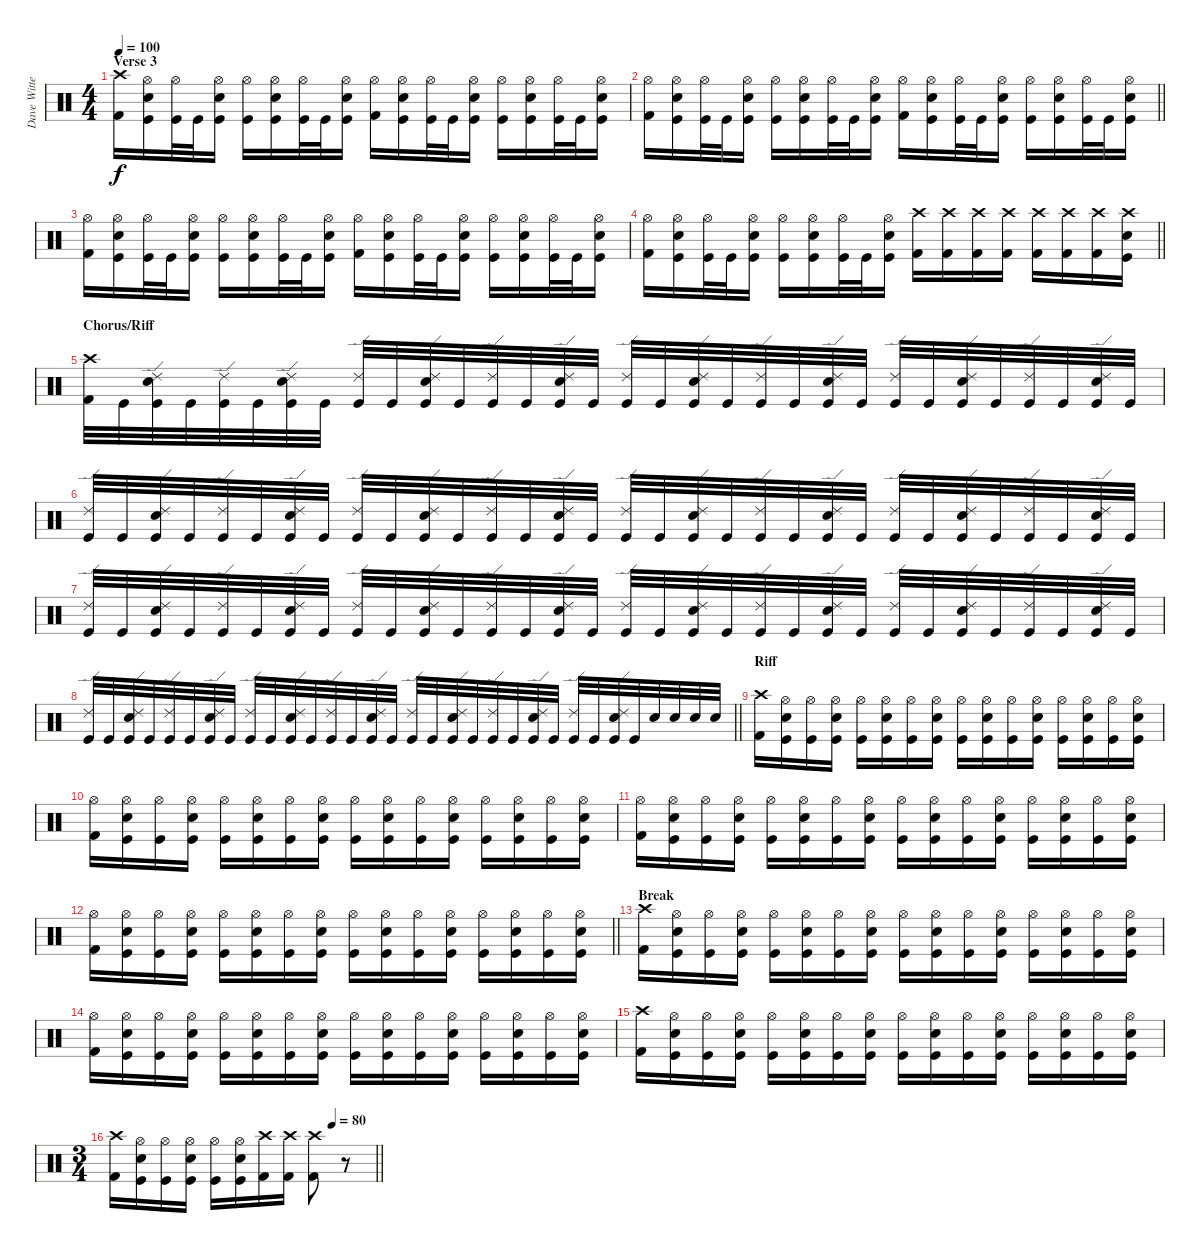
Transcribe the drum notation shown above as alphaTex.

\track ("Dave Witte " "Dave Witte") {instrument percussion}
\staff {score}
\articulation defaults
\ts (4 4)
\section ("" "Verse 3")
\tempo 100
\clef neutral
\ks c
("Kick (hit) 2" "Crash high (hit)").16{dy f} ("Kick (hit)" "Electric Snare (hit)" "Hi-Hat (open)").16 ("Kick (hit)" "Hi-Hat (open)").32 "Kick (hit)".32 ("Kick (hit)" "Electric Snare (hit)" "Hi-Hat (open)").16 ("Kick (hit)" "Hi-Hat (open)").16 ("Kick (hit)" "Electric Snare (hit)" "Hi-Hat (open)").16 ("Kick (hit)" "Hi-Hat (open)").32 "Kick (hit)".32 ("Kick (hit)" "Electric Snare (hit)" "Hi-Hat (open)").16 ("Kick (hit) 2" "Hi-Hat (open)").16 ("Kick (hit)" "Electric Snare (hit)" "Hi-Hat (open)").16 ("Kick (hit)" "Hi-Hat (open)").32 "Kick (hit)".32 ("Kick (hit)" "Electric Snare (hit)" "Hi-Hat (open)").16 ("Kick (hit)" "Hi-Hat (open)").16 ("Kick (hit)" "Electric Snare (hit)" "Hi-Hat (open)").16 ("Kick (hit)" "Hi-Hat (open)").32 "Kick (hit)".32 ("Kick (hit)" "Electric Snare (hit)" "Hi-Hat (open)").16 |
\barLineRight lightlight
("Kick (hit) 2" "Hi-Hat (open)").16 ("Kick (hit)" "Electric Snare (hit)" "Hi-Hat (open)").16 ("Kick (hit)" "Hi-Hat (open)").32 "Kick (hit)".32 ("Kick (hit)" "Electric Snare (hit)" "Hi-Hat (open)").16 ("Kick (hit)" "Hi-Hat (open)").16 ("Kick (hit)" "Electric Snare (hit)" "Hi-Hat (open)").16 ("Kick (hit)" "Hi-Hat (open)").32 "Kick (hit)".32 ("Kick (hit)" "Electric Snare (hit)" "Hi-Hat (open)").16 ("Kick (hit) 2" "Hi-Hat (open)").16 ("Kick (hit)" "Electric Snare (hit)" "Hi-Hat (open)").16 ("Kick (hit)" "Hi-Hat (open)").32 "Kick (hit)".32 ("Kick (hit)" "Electric Snare (hit)" "Hi-Hat (open)").16 ("Kick (hit)" "Hi-Hat (open)").16 ("Kick (hit)" "Electric Snare (hit)" "Hi-Hat (open)").16 ("Kick (hit)" "Hi-Hat (open)").32 "Kick (hit)".32 ("Kick (hit)" "Electric Snare (hit)" "Hi-Hat (open)").16 |
("Kick (hit) 2" "Hi-Hat (open)").16 ("Kick (hit)" "Electric Snare (hit)" "Hi-Hat (open)").16 ("Kick (hit)" "Hi-Hat (open)").32 "Kick (hit)".32 ("Kick (hit)" "Electric Snare (hit)" "Hi-Hat (open)").16 ("Kick (hit)" "Hi-Hat (open)").16 ("Kick (hit)" "Electric Snare (hit)" "Hi-Hat (open)").16 ("Kick (hit)" "Hi-Hat (open)").32 "Kick (hit)".32 ("Kick (hit)" "Electric Snare (hit)" "Hi-Hat (open)").16 ("Kick (hit) 2" "Hi-Hat (open)").16 ("Kick (hit)" "Electric Snare (hit)" "Hi-Hat (open)").16 ("Kick (hit)" "Hi-Hat (open)").32 "Kick (hit)".32 ("Kick (hit)" "Electric Snare (hit)" "Hi-Hat (open)").16 ("Kick (hit)" "Hi-Hat (open)").16 ("Kick (hit)" "Electric Snare (hit)" "Hi-Hat (open)").16 ("Kick (hit)" "Hi-Hat (open)").32 "Kick (hit)".32 ("Kick (hit)" "Electric Snare (hit)" "Hi-Hat (open)").16 |
\barLineRight lightlight
("Kick (hit) 2" "Hi-Hat (open)").16 ("Kick (hit)" "Electric Snare (hit)" "Hi-Hat (open)").16 ("Kick (hit)" "Hi-Hat (open)").32 "Kick (hit)".32 ("Kick (hit)" "Electric Snare (hit)" "Hi-Hat (open)").16 ("Kick (hit)" "Hi-Hat (open)").16 ("Kick (hit)" "Electric Snare (hit)" "Hi-Hat (open)").16 ("Kick (hit)" "Hi-Hat (open)").32 "Kick (hit)".32 ("Kick (hit)" "Electric Snare (hit)" "Hi-Hat (open)").16 ("Kick (hit) 2" "Crash high (hit)").16 ("Kick (hit) 2" "Crash high (hit)").16 ("Kick (hit) 2" "Crash high (hit)").16 ("Kick (hit) 2" "Crash high (hit)").16 ("Kick (hit) 2" "Crash high (hit)").16 ("Kick (hit) 2" "Crash high (hit)").16 ("Kick (hit) 2" "Crash high (hit)").16 ("Kick (hit)" "Electric Snare (hit)" "Crash high (hit)").16 |
\section ("" "Chorus/Riff")
("Kick (hit) 2" "Crash high (hit)").32 "Kick (hit)".32 ("Kick (hit)" "Electric Snare (hit)" "Ride (edge) 2").32 "Kick (hit)".32 ("Kick (hit)" "Ride (edge) 2").32 "Kick (hit)".32 ("Kick (hit)" "Electric Snare (hit)" "Ride (edge) 2").32 "Kick (hit)".32 ("Kick (hit)" "Ride (edge) 2").32 "Kick (hit)".32 ("Kick (hit)" "Electric Snare (hit)" "Ride (edge) 2").32 "Kick (hit)".32 ("Kick (hit)" "Ride (edge) 2").32 "Kick (hit)".32 ("Kick (hit)" "Electric Snare (hit)" "Ride (edge) 2").32 "Kick (hit)".32 ("Kick (hit)" "Ride (edge) 2").32 "Kick (hit)".32 ("Kick (hit)" "Electric Snare (hit)" "Ride (edge) 2").32 "Kick (hit)".32 ("Kick (hit)" "Ride (edge) 2").32 "Kick (hit)".32 ("Kick (hit)" "Electric Snare (hit)" "Ride (edge) 2").32 "Kick (hit)".32 ("Kick (hit)" "Ride (edge) 2").32 "Kick (hit)".32 ("Kick (hit)" "Electric Snare (hit)" "Ride (edge) 2").32 "Kick (hit)".32 ("Kick (hit)" "Ride (edge) 2").32 "Kick (hit)".32 ("Kick (hit)" "Electric Snare (hit)" "Ride (edge) 2").32 "Kick (hit)".32 |
("Kick (hit)" "Ride (edge) 2").32 "Kick (hit)".32 ("Kick (hit)" "Electric Snare (hit)" "Ride (edge) 2").32 "Kick (hit)".32 ("Kick (hit)" "Ride (edge) 2").32 "Kick (hit)".32 ("Kick (hit)" "Electric Snare (hit)" "Ride (edge) 2").32 "Kick (hit)".32 ("Kick (hit)" "Ride (edge) 2").32 "Kick (hit)".32 ("Kick (hit)" "Electric Snare (hit)" "Ride (edge) 2").32 "Kick (hit)".32 ("Kick (hit)" "Ride (edge) 2").32 "Kick (hit)".32 ("Kick (hit)" "Electric Snare (hit)" "Ride (edge) 2").32 "Kick (hit)".32 ("Kick (hit)" "Ride (edge) 2").32 "Kick (hit)".32 ("Kick (hit)" "Electric Snare (hit)" "Ride (edge) 2").32 "Kick (hit)".32 ("Kick (hit)" "Ride (edge) 2").32 "Kick (hit)".32 ("Kick (hit)" "Electric Snare (hit)" "Ride (edge) 2").32 "Kick (hit)".32 ("Kick (hit)" "Ride (edge) 2").32 "Kick (hit)".32 ("Kick (hit)" "Electric Snare (hit)" "Ride (edge) 2").32 "Kick (hit)".32 ("Kick (hit)" "Ride (edge) 2").32 "Kick (hit)".32 ("Kick (hit)" "Electric Snare (hit)" "Ride (edge) 2").32 "Kick (hit)".32 |
("Kick (hit)" "Ride (edge) 2").32 "Kick (hit)".32 ("Kick (hit)" "Electric Snare (hit)" "Ride (edge) 2").32 "Kick (hit)".32 ("Kick (hit)" "Ride (edge) 2").32 "Kick (hit)".32 ("Kick (hit)" "Electric Snare (hit)" "Ride (edge) 2").32 "Kick (hit)".32 ("Kick (hit)" "Ride (edge) 2").32 "Kick (hit)".32 ("Kick (hit)" "Electric Snare (hit)" "Ride (edge) 2").32 "Kick (hit)".32 ("Kick (hit)" "Ride (edge) 2").32 "Kick (hit)".32 ("Kick (hit)" "Electric Snare (hit)" "Ride (edge) 2").32 "Kick (hit)".32 ("Kick (hit)" "Ride (edge) 2").32 "Kick (hit)".32 ("Kick (hit)" "Electric Snare (hit)" "Ride (edge) 2").32 "Kick (hit)".32 ("Kick (hit)" "Ride (edge) 2").32 "Kick (hit)".32 ("Kick (hit)" "Electric Snare (hit)" "Ride (edge) 2").32 "Kick (hit)".32 ("Kick (hit)" "Ride (edge) 2").32 "Kick (hit)".32 ("Kick (hit)" "Electric Snare (hit)" "Ride (edge) 2").32 "Kick (hit)".32 ("Kick (hit)" "Ride (edge) 2").32 "Kick (hit)".32 ("Kick (hit)" "Electric Snare (hit)" "Ride (edge) 2").32 "Kick (hit)".32 |
\barLineRight lightlight
("Kick (hit)" "Ride (edge) 2").32 "Kick (hit)".32 ("Kick (hit)" "Electric Snare (hit)" "Ride (edge) 2").32 "Kick (hit)".32 ("Kick (hit)" "Ride (edge) 2").32 "Kick (hit)".32 ("Kick (hit)" "Electric Snare (hit)" "Ride (edge) 2").32 "Kick (hit)".32 ("Kick (hit)" "Ride (edge) 2").32 "Kick (hit)".32 ("Kick (hit)" "Electric Snare (hit)" "Ride (edge) 2").32 "Kick (hit)".32 ("Kick (hit)" "Ride (edge) 2").32 "Kick (hit)".32 ("Kick (hit)" "Electric Snare (hit)" "Ride (edge) 2").32 "Kick (hit)".32 ("Kick (hit)" "Ride (edge) 2").32 "Kick (hit)".32 ("Kick (hit)" "Electric Snare (hit)" "Ride (edge) 2").32 "Kick (hit)".32 ("Kick (hit)" "Ride (edge) 2").32 "Kick (hit)".32 ("Kick (hit)" "Electric Snare (hit)" "Ride (edge) 2").32 "Kick (hit)".32 ("Kick (hit)" "Ride (edge) 2").32 "Kick (hit)".32 ("Kick (hit)" "Electric Snare (hit)" "Ride (edge) 2").32 "Kick (hit)".32 "Electric Snare (hit)".32 "Electric Snare (hit)".32 "Electric Snare (hit)".32 "Electric Snare (hit)".32 |
\section ("" "Riff")
("Kick (hit) 2" "Crash high (hit)").16 ("Kick (hit)" "Electric Snare (hit)" "Hi-Hat (open)").16 ("Kick (hit)" "Hi-Hat (open)").16 ("Kick (hit)" "Electric Snare (hit)" "Hi-Hat (open)").16 ("Kick (hit)" "Hi-Hat (open)").16 ("Kick (hit)" "Electric Snare (hit)" "Hi-Hat (open)").16 ("Kick (hit)" "Hi-Hat (open)").16 ("Kick (hit)" "Electric Snare (hit)" "Hi-Hat (open)").16 ("Kick (hit)" "Hi-Hat (open)").16 ("Kick (hit)" "Electric Snare (hit)" "Hi-Hat (open)").16 ("Kick (hit)" "Hi-Hat (open)").16 ("Kick (hit)" "Electric Snare (hit)" "Hi-Hat (open)").16 ("Kick (hit)" "Hi-Hat (open)").16 ("Kick (hit)" "Electric Snare (hit)" "Hi-Hat (open)").16 ("Kick (hit)" "Hi-Hat (open)").16 ("Kick (hit)" "Electric Snare (hit)" "Hi-Hat (open)").16 |
("Kick (hit) 2" "Hi-Hat (open)").16 ("Kick (hit)" "Electric Snare (hit)" "Hi-Hat (open)").16 ("Kick (hit)" "Hi-Hat (open)").16 ("Kick (hit)" "Electric Snare (hit)" "Hi-Hat (open)").16 ("Kick (hit)" "Hi-Hat (open)").16 ("Kick (hit)" "Electric Snare (hit)" "Hi-Hat (open)").16 ("Kick (hit)" "Hi-Hat (open)").16 ("Kick (hit)" "Electric Snare (hit)" "Hi-Hat (open)").16 ("Kick (hit)" "Hi-Hat (open)").16 ("Kick (hit)" "Electric Snare (hit)" "Hi-Hat (open)").16 ("Kick (hit)" "Hi-Hat (open)").16 ("Kick (hit)" "Electric Snare (hit)" "Hi-Hat (open)").16 ("Kick (hit)" "Hi-Hat (open)").16 ("Kick (hit)" "Electric Snare (hit)" "Hi-Hat (open)").16 ("Kick (hit)" "Hi-Hat (open)").16 ("Kick (hit)" "Electric Snare (hit)" "Hi-Hat (open)").16 |
("Kick (hit) 2" "Hi-Hat (open)").16 ("Kick (hit)" "Electric Snare (hit)" "Hi-Hat (open)").16 ("Kick (hit)" "Hi-Hat (open)").16 ("Kick (hit)" "Electric Snare (hit)" "Hi-Hat (open)").16 ("Kick (hit)" "Hi-Hat (open)").16 ("Kick (hit)" "Electric Snare (hit)" "Hi-Hat (open)").16 ("Kick (hit)" "Hi-Hat (open)").16 ("Kick (hit)" "Electric Snare (hit)" "Hi-Hat (open)").16 ("Kick (hit)" "Hi-Hat (open)").16 ("Kick (hit)" "Electric Snare (hit)" "Hi-Hat (open)").16 ("Kick (hit)" "Hi-Hat (open)").16 ("Kick (hit)" "Electric Snare (hit)" "Hi-Hat (open)").16 ("Kick (hit)" "Hi-Hat (open)").16 ("Kick (hit)" "Electric Snare (hit)" "Hi-Hat (open)").16 ("Kick (hit)" "Hi-Hat (open)").16 ("Kick (hit)" "Electric Snare (hit)" "Hi-Hat (open)").16 |
\barLineRight lightlight
("Kick (hit) 2" "Hi-Hat (open)").16 ("Kick (hit)" "Electric Snare (hit)" "Hi-Hat (open)").16 ("Kick (hit)" "Hi-Hat (open)").16 ("Kick (hit)" "Electric Snare (hit)" "Hi-Hat (open)").16 ("Kick (hit)" "Hi-Hat (open)").16 ("Kick (hit)" "Electric Snare (hit)" "Hi-Hat (open)").16 ("Kick (hit)" "Hi-Hat (open)").16 ("Kick (hit)" "Electric Snare (hit)" "Hi-Hat (open)").16 ("Kick (hit)" "Hi-Hat (open)").16 ("Kick (hit)" "Electric Snare (hit)" "Hi-Hat (open)").16 ("Kick (hit)" "Hi-Hat (open)").16 ("Kick (hit)" "Electric Snare (hit)" "Hi-Hat (open)").16 ("Kick (hit)" "Hi-Hat (open)").16 ("Kick (hit)" "Electric Snare (hit)" "Hi-Hat (open)").16 ("Kick (hit)" "Hi-Hat (open)").16 ("Kick (hit)" "Electric Snare (hit)" "Hi-Hat (open)").16 |
\section ("" "Break")
("Kick (hit) 2" "Crash high (hit)").16 ("Kick (hit)" "Electric Snare (hit)" "Hi-Hat (open)").16 ("Kick (hit)" "Hi-Hat (open)").16 ("Kick (hit)" "Electric Snare (hit)" "Hi-Hat (open)").16 ("Kick (hit)" "Hi-Hat (open)").16 ("Kick (hit)" "Electric Snare (hit)" "Hi-Hat (open)").16 ("Kick (hit)" "Hi-Hat (open)").16 ("Kick (hit)" "Electric Snare (hit)" "Hi-Hat (open)").16 ("Kick (hit)" "Hi-Hat (open)").16 ("Kick (hit)" "Electric Snare (hit)" "Hi-Hat (open)").16 ("Kick (hit)" "Hi-Hat (open)").16 ("Kick (hit)" "Electric Snare (hit)" "Hi-Hat (open)").16 ("Kick (hit)" "Hi-Hat (open)").16 ("Kick (hit)" "Electric Snare (hit)" "Hi-Hat (open)").16 ("Kick (hit)" "Hi-Hat (open)").16 ("Kick (hit)" "Electric Snare (hit)" "Hi-Hat (open)").16 |
("Kick (hit) 2" "Hi-Hat (open)").16 ("Kick (hit)" "Electric Snare (hit)" "Hi-Hat (open)").16 ("Kick (hit)" "Hi-Hat (open)").16 ("Kick (hit)" "Electric Snare (hit)" "Hi-Hat (open)").16 ("Kick (hit)" "Hi-Hat (open)").16 ("Kick (hit)" "Electric Snare (hit)" "Hi-Hat (open)").16 ("Kick (hit)" "Hi-Hat (open)").16 ("Kick (hit)" "Electric Snare (hit)" "Hi-Hat (open)").16 ("Kick (hit)" "Hi-Hat (open)").16 ("Kick (hit)" "Electric Snare (hit)" "Hi-Hat (open)").16 ("Kick (hit)" "Hi-Hat (open)").16 ("Kick (hit)" "Electric Snare (hit)" "Hi-Hat (open)").16 ("Kick (hit)" "Hi-Hat (open)").16 ("Kick (hit)" "Electric Snare (hit)" "Hi-Hat (open)").16 ("Kick (hit)" "Hi-Hat (open)").16 ("Kick (hit)" "Electric Snare (hit)" "Hi-Hat (open)").16 |
("Kick (hit) 2" "Crash high (hit)").16 ("Kick (hit)" "Electric Snare (hit)" "Hi-Hat (open)").16 ("Kick (hit)" "Hi-Hat (open)").16 ("Kick (hit)" "Electric Snare (hit)" "Hi-Hat (open)").16 ("Kick (hit)" "Hi-Hat (open)").16 ("Kick (hit)" "Electric Snare (hit)" "Hi-Hat (open)").16 ("Kick (hit)" "Hi-Hat (open)").16 ("Kick (hit)" "Electric Snare (hit)" "Hi-Hat (open)").16 ("Kick (hit)" "Hi-Hat (open)").16 ("Kick (hit)" "Electric Snare (hit)" "Hi-Hat (open)").16 ("Kick (hit)" "Hi-Hat (open)").16 ("Kick (hit)" "Electric Snare (hit)" "Hi-Hat (open)").16 ("Kick (hit)" "Hi-Hat (open)").16 ("Kick (hit)" "Electric Snare (hit)" "Hi-Hat (open)").16 ("Kick (hit)" "Hi-Hat (open)").16 ("Kick (hit)" "Electric Snare (hit)" "Hi-Hat (open)").16 |
\ts (3 4)
\tempo (80 0.8333333333333334)
\barLineRight lightlight
("Kick (hit) 2" "Crash high (hit)").16 ("Kick (hit)" "Electric Snare (hit)" "Hi-Hat (open)").16 ("Kick (hit)" "Hi-Hat (open)").16 ("Kick (hit)" "Electric Snare (hit)" "Hi-Hat (open)").16 ("Kick (hit)" "Hi-Hat (open)").16 ("Kick (hit)" "Electric Snare (hit)" "Hi-Hat (open)").16 ("Kick (hit) 2" "Crash high (hit)").16 ("Kick (hit) 2" "Crash high (hit)").16 ("Kick (hit) 2" "Crash high (hit)").8 r.8
